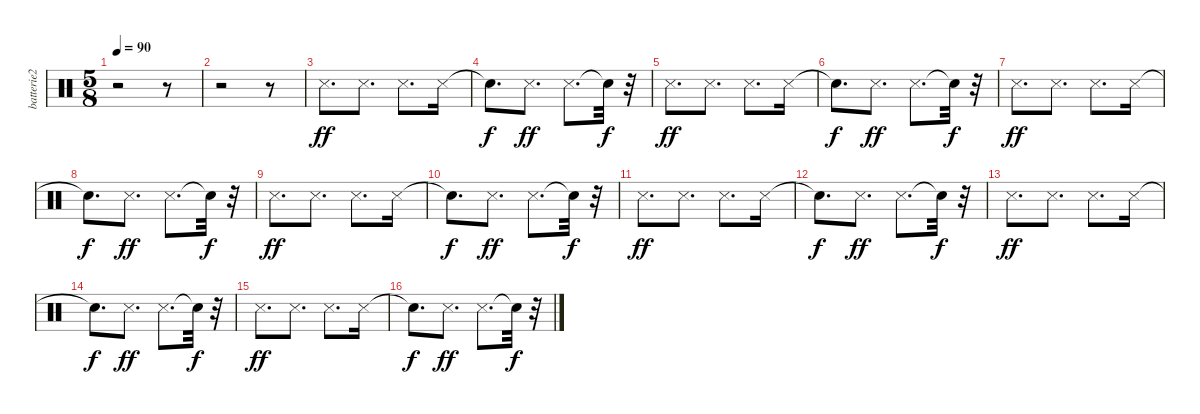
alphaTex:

\track ("batterie2" "batterie2") {instrument percussion}
\staff {score}
\articulation defaults
\ts (5 8)
\tempo 90
\clef neutral
\ks c
r.2{dy f} r.8 |
r.2 r.8 |
"Snare (side stick) 3".8{d dy ff} "Snare (side stick) 3".8{d} "Snare (side stick) 3".8{d} "Snare (side stick) 3".16 |
"Snare (hit)"{t}.8{d dy f} "Snare (side stick) 3".8{d dy ff} "Snare (side stick) 3".8{d} "Snare (hit)"{t}.32{dy f} r.32 |
"Snare (side stick) 3".8{d dy ff} "Snare (side stick) 3".8{d} "Snare (side stick) 3".8{d} "Snare (side stick) 3".16 |
"Snare (hit)"{t}.8{d dy f} "Snare (side stick) 3".8{d dy ff} "Snare (side stick) 3".8{d} "Snare (hit)"{t}.32{dy f} r.32 |
"Snare (side stick) 3".8{d dy ff} "Snare (side stick) 3".8{d} "Snare (side stick) 3".8{d} "Snare (side stick) 3".16 |
"Snare (hit)"{t}.8{d dy f} "Snare (side stick) 3".8{d dy ff} "Snare (side stick) 3".8{d} "Snare (hit)"{t}.32{dy f} r.32 |
"Snare (side stick) 3".8{d dy ff} "Snare (side stick) 3".8{d} "Snare (side stick) 3".8{d} "Snare (side stick) 3".16 |
"Snare (hit)"{t}.8{d dy f} "Snare (side stick) 3".8{d dy ff} "Snare (side stick) 3".8{d} "Snare (hit)"{t}.32{dy f} r.32 |
"Snare (side stick) 3".8{d dy ff} "Snare (side stick) 3".8{d} "Snare (side stick) 3".8{d} "Snare (side stick) 3".16 |
"Snare (hit)"{t}.8{d dy f} "Snare (side stick) 3".8{d dy ff} "Snare (side stick) 3".8{d} "Snare (hit)"{t}.32{dy f} r.32 |
"Snare (side stick) 3".8{d dy ff} "Snare (side stick) 3".8{d} "Snare (side stick) 3".8{d} "Snare (side stick) 3".16 |
"Snare (hit)"{t}.8{d dy f} "Snare (side stick) 3".8{d dy ff} "Snare (side stick) 3".8{d} "Snare (hit)"{t}.32{dy f} r.32 |
"Snare (side stick) 3".8{d dy ff} "Snare (side stick) 3".8{d} "Snare (side stick) 3".8{d} "Snare (side stick) 3".16 |
"Snare (hit)"{t}.8{d dy f} "Snare (side stick) 3".8{d dy ff} "Snare (side stick) 3".8{d} "Snare (hit)"{t}.32{dy f} r.32
